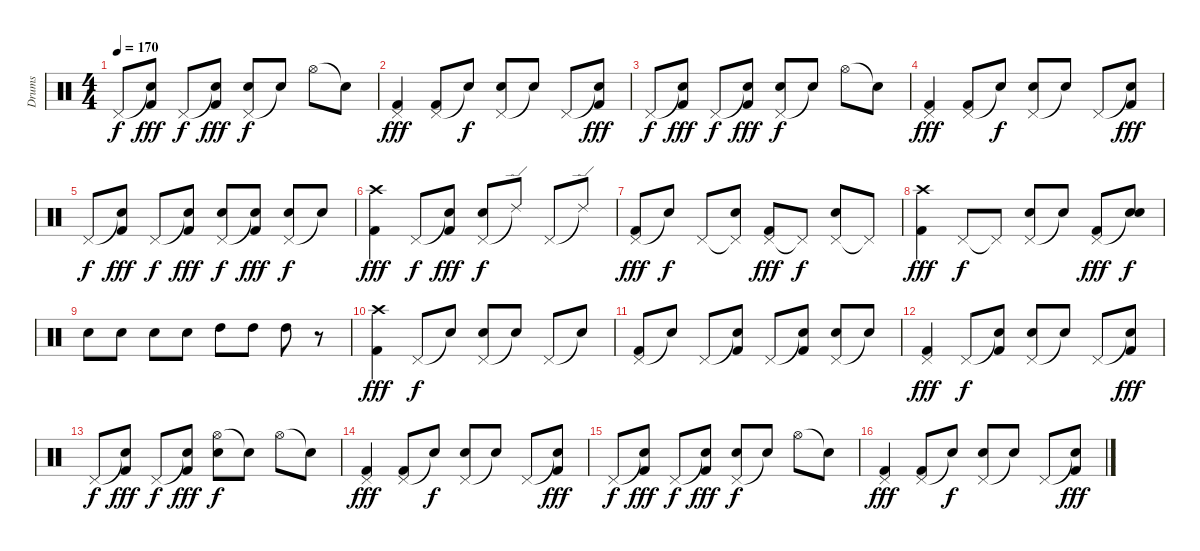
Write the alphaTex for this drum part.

\track ("Drums" "Drums") {instrument percussion}
\staff {score}
\articulation defaults
\ts (4 4)
\tempo 170
\clef neutral
\ks c "Pedal Hi-Hat (hit)".8{dy f}
("Snare (hit)"{t} "Kick (hit) 2").8{dy fff} "Pedal Hi-Hat (hit)".8{dy f} ("Snare (hit)"{t} "Kick (hit) 2").8{dy fff} ("Pedal Hi-Hat (hit)" "Electric Snare (hit)").8{dy f} "Snare (hit)"{t}.8 "Hi-Hat (open)".8 "Snare (hit)"{t}.8 |
("Pedal Hi-Hat (hit)" "Kick (hit) 2").4{dy fff} ("Pedal Hi-Hat (hit)" "Kick (hit) 2").8 "Snare (hit)"{t}.8{dy f} ("Pedal Hi-Hat (hit)" "Electric Snare (hit)").8 "Snare (hit)"{t}.8 "Pedal Hi-Hat (hit)".8 ("Snare (hit)"{t} "Kick (hit) 2").8{dy fff} |
"Pedal Hi-Hat (hit)".8{dy f} ("Snare (hit)"{t} "Kick (hit) 2").8{dy fff} "Pedal Hi-Hat (hit)".8{dy f} ("Snare (hit)"{t} "Kick (hit) 2").8{dy fff} ("Pedal Hi-Hat (hit)" "Electric Snare (hit)").8{dy f} "Snare (hit)"{t}.8 "Hi-Hat (open)".8 "Snare (hit)"{t}.8 |
("Pedal Hi-Hat (hit)" "Kick (hit) 2").4{dy fff} ("Pedal Hi-Hat (hit)" "Kick (hit) 2").8 "Snare (hit)"{t}.8{dy f} ("Pedal Hi-Hat (hit)" "Electric Snare (hit)").8 "Snare (hit)"{t}.8 "Pedal Hi-Hat (hit)".8 ("Snare (hit)"{t} "Kick (hit) 2").8{dy fff} |
"Pedal Hi-Hat (hit)".8{dy f} ("Snare (hit)"{t} "Kick (hit) 2").8{dy fff} "Pedal Hi-Hat (hit)".8{dy f} ("Snare (hit)"{t} "Kick (hit) 2").8{dy fff} ("Pedal Hi-Hat (hit)" "Electric Snare (hit)").8{dy f} ("Snare (hit)"{t} "Kick (hit) 2").8{dy fff} ("Pedal Hi-Hat (hit)" "Electric Snare (hit)").8{dy f} "Snare (hit)"{t}.8 |
("Crash high (hit)" "Kick (hit) 2").4{dy fff} "Pedal Hi-Hat (hit)".8{dy f} ("Snare (hit)"{t} "Kick (hit) 2").8{dy fff} ("Pedal Hi-Hat (hit)" "Electric Snare (hit)").8{dy f} "Ride (edge) 2"{t}.8 "Pedal Hi-Hat (hit)".8 "Ride (edge) 2"{t}.8 |
("Pedal Hi-Hat (hit)" "Kick (hit) 2").8{dy fff} "Snare (hit)"{t}.8{dy f} "Pedal Hi-Hat (hit)".8 ("Pedal Hi-Hat (hit)"{t} "Electric Snare (hit)").8 ("Pedal Hi-Hat (hit)" "Kick (hit) 2").8{dy fff} "Pedal Hi-Hat (hit)"{t}.8{dy f} ("Pedal Hi-Hat (hit)" "Electric Snare (hit)").8 "Pedal Hi-Hat (hit)"{t}.8 |
("Crash high (hit)" "Kick (hit) 2").4{dy fff} "Pedal Hi-Hat (hit)".8{dy f} "Pedal Hi-Hat (hit)"{t}.8 ("Pedal Hi-Hat (hit)" "Electric Snare (hit)").8 "Snare (hit)"{t}.8 ("Pedal Hi-Hat (hit)" "Kick (hit) 2").8{dy fff} ("Snare (hit)"{t} "Electric Snare (hit)").8{dy f} |
"Electric Snare (hit)".8 "Electric Snare (hit)".8 "Electric Snare (hit)".8 "Electric Snare (hit)".8 "High Tom (hit)".8 "High Tom (hit)".8 "High Tom (hit)".8 r.8 |
("Crash high (hit)" "Kick (hit) 2").4{dy fff} "Pedal Hi-Hat (hit)".8{dy f} "Snare (hit)"{t}.8 ("Pedal Hi-Hat (hit)" "Electric Snare (hit)").8 "Snare (hit)"{t}.8 "Pedal Hi-Hat (hit)".8 "Snare (hit)"{t}.8 |
("Pedal Hi-Hat (hit)" "Kick (hit) 2").8 "Snare (hit)"{t}.8 "Pedal Hi-Hat (hit)".8 ("Snare (hit)"{t} "Kick (hit) 2").8 "Pedal Hi-Hat (hit)".8 ("Snare (hit)"{t} "Kick (hit) 2").8 ("Pedal Hi-Hat (hit)" "Electric Snare (hit)").8 "Snare (hit)"{t}.8 |
("Pedal Hi-Hat (hit)" "Kick (hit) 2").4{dy fff} "Pedal Hi-Hat (hit)".8{dy f} ("Snare (hit)"{t} "Kick (hit) 2").8 ("Pedal Hi-Hat (hit)" "Electric Snare (hit)").8 "Snare (hit)"{t}.8 "Pedal Hi-Hat (hit)".8 ("Snare (hit)"{t} "Kick (hit) 2").8{dy fff} |
"Pedal Hi-Hat (hit)".8{dy f} ("Snare (hit)"{t} "Kick (hit) 2").8{dy fff} "Pedal Hi-Hat (hit)".8{dy f} ("Snare (hit)"{t} "Kick (hit) 2").8{dy fff} ("Hi-Hat (open)" "Electric Snare (hit)").8{dy f} "Snare (hit)"{t}.8 "Hi-Hat (open)".8 "Snare (hit)"{t}.8 |
("Pedal Hi-Hat (hit)" "Kick (hit) 2").4{dy fff} ("Pedal Hi-Hat (hit)" "Kick (hit) 2").8 "Snare (hit)"{t}.8{dy f} ("Pedal Hi-Hat (hit)" "Electric Snare (hit)").8 "Snare (hit)"{t}.8 "Pedal Hi-Hat (hit)".8 ("Snare (hit)"{t} "Kick (hit) 2").8{dy fff} |
"Pedal Hi-Hat (hit)".8{dy f} ("Snare (hit)"{t} "Kick (hit) 2").8{dy fff} "Pedal Hi-Hat (hit)".8{dy f} ("Snare (hit)"{t} "Kick (hit) 2").8{dy fff} ("Pedal Hi-Hat (hit)" "Electric Snare (hit)").8{dy f} "Snare (hit)"{t}.8 "Hi-Hat (open)".8 "Snare (hit)"{t}.8 |
("Pedal Hi-Hat (hit)" "Kick (hit) 2").4{dy fff} ("Pedal Hi-Hat (hit)" "Kick (hit) 2").8 "Snare (hit)"{t}.8{dy f} ("Pedal Hi-Hat (hit)" "Electric Snare (hit)").8 "Snare (hit)"{t}.8 "Pedal Hi-Hat (hit)".8 ("Snare (hit)"{t} "Kick (hit) 2").8{dy fff}
